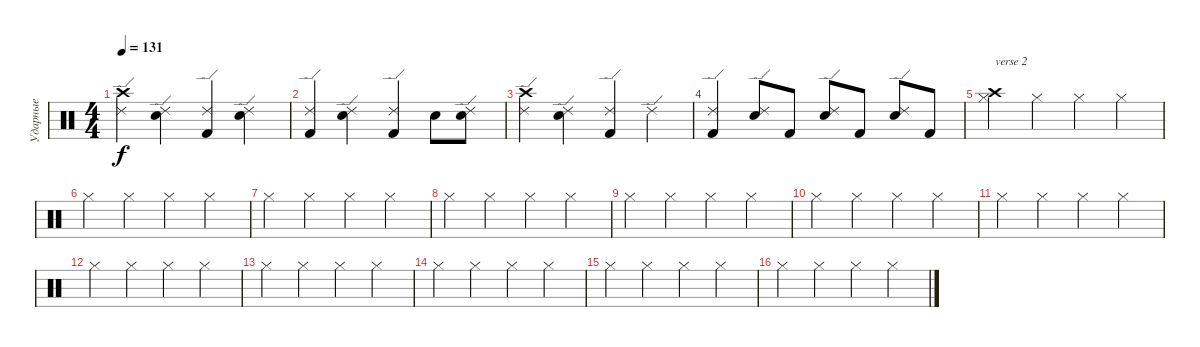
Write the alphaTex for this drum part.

\track ("Ударные" "Ударные") {instrument percussion}
\staff {score}
\articulation defaults
\ts (4 4)
\tempo 131
\clef neutral
\ks c
("Crash high (hit)" "Ride (edge) 2").4{dy f} ("Electric Snare (hit)" "Ride (edge) 2").4 ("Kick (hit) 2" "Ride (edge) 2").4 ("Electric Snare (hit)" "Ride (edge) 2").4 |
("Kick (hit) 2" "Ride (edge) 2").4 ("Electric Snare (hit)" "Ride (edge) 2").4 ("Kick (hit) 2" "Ride (edge) 2").4 "Electric Snare (hit)".8 ("Electric Snare (hit)" "Ride (edge) 2").8 |
("Crash high (hit)" "Ride (edge) 2").4 ("Electric Snare (hit)" "Ride (edge) 2").4 ("Kick (hit) 2" "Ride (edge) 2").4 "Ride (edge) 2".4 |
("Kick (hit) 2" "Ride (edge) 2").4 ("Electric Snare (hit)" "Ride (edge) 2").8 "Kick (hit) 2".8 ("Electric Snare (hit)" "Ride (edge) 2").8 "Kick (hit) 2".8 ("Electric Snare (hit)" "Ride (edge) 2").8 "Kick (hit) 2".8 |
("Hi-Hat (closed)" "Crash high (hit)").4{txt "verse 2"} "Hi-Hat (closed)".4 "Hi-Hat (closed)".4 "Hi-Hat (closed)".4 |
"Hi-Hat (closed)".4 "Hi-Hat (closed)".4 "Hi-Hat (closed)".4 "Hi-Hat (closed)".4 |
"Hi-Hat (closed)".4 "Hi-Hat (closed)".4 "Hi-Hat (closed)".4 "Hi-Hat (closed)".4 |
"Hi-Hat (closed)".4 "Hi-Hat (closed)".4 "Hi-Hat (closed)".4 "Hi-Hat (closed)".4 |
"Hi-Hat (closed)".4 "Hi-Hat (closed)".4 "Hi-Hat (closed)".4 "Hi-Hat (closed)".4 |
"Hi-Hat (closed)".4 "Hi-Hat (closed)".4 "Hi-Hat (closed)".4 "Hi-Hat (closed)".4 |
"Hi-Hat (closed)".4 "Hi-Hat (closed)".4 "Hi-Hat (closed)".4 "Hi-Hat (closed)".4 |
"Hi-Hat (closed)".4 "Hi-Hat (closed)".4 "Hi-Hat (closed)".4 "Hi-Hat (closed)".4 |
"Hi-Hat (closed)".4 "Hi-Hat (closed)".4 "Hi-Hat (closed)".4 "Hi-Hat (closed)".4 |
"Hi-Hat (closed)".4 "Hi-Hat (closed)".4 "Hi-Hat (closed)".4 "Hi-Hat (closed)".4 |
"Hi-Hat (closed)".4 "Hi-Hat (closed)".4 "Hi-Hat (closed)".4 "Hi-Hat (closed)".4 |
"Hi-Hat (closed)".4 "Hi-Hat (closed)".4 "Hi-Hat (closed)".4 "Hi-Hat (closed)".4
